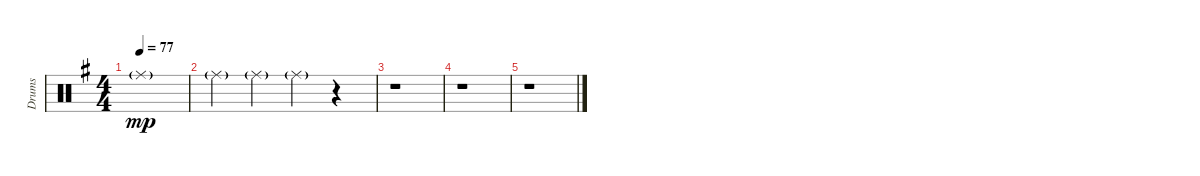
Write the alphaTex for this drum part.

\track ("Drums" "Drums") {instrument percussion}
\staff {score}
\articulation defaults
\ts (4 4)
\tempo 77
\clef neutral
\ks eminor "Ride (middle)"{g}.1{dy mp}
|
"Ride (middle)"{g}.4 "Ride (middle)"{g}.4 "Ride (middle)"{g}.4 r.4 |
r.1 |
r.1 |
r.1
